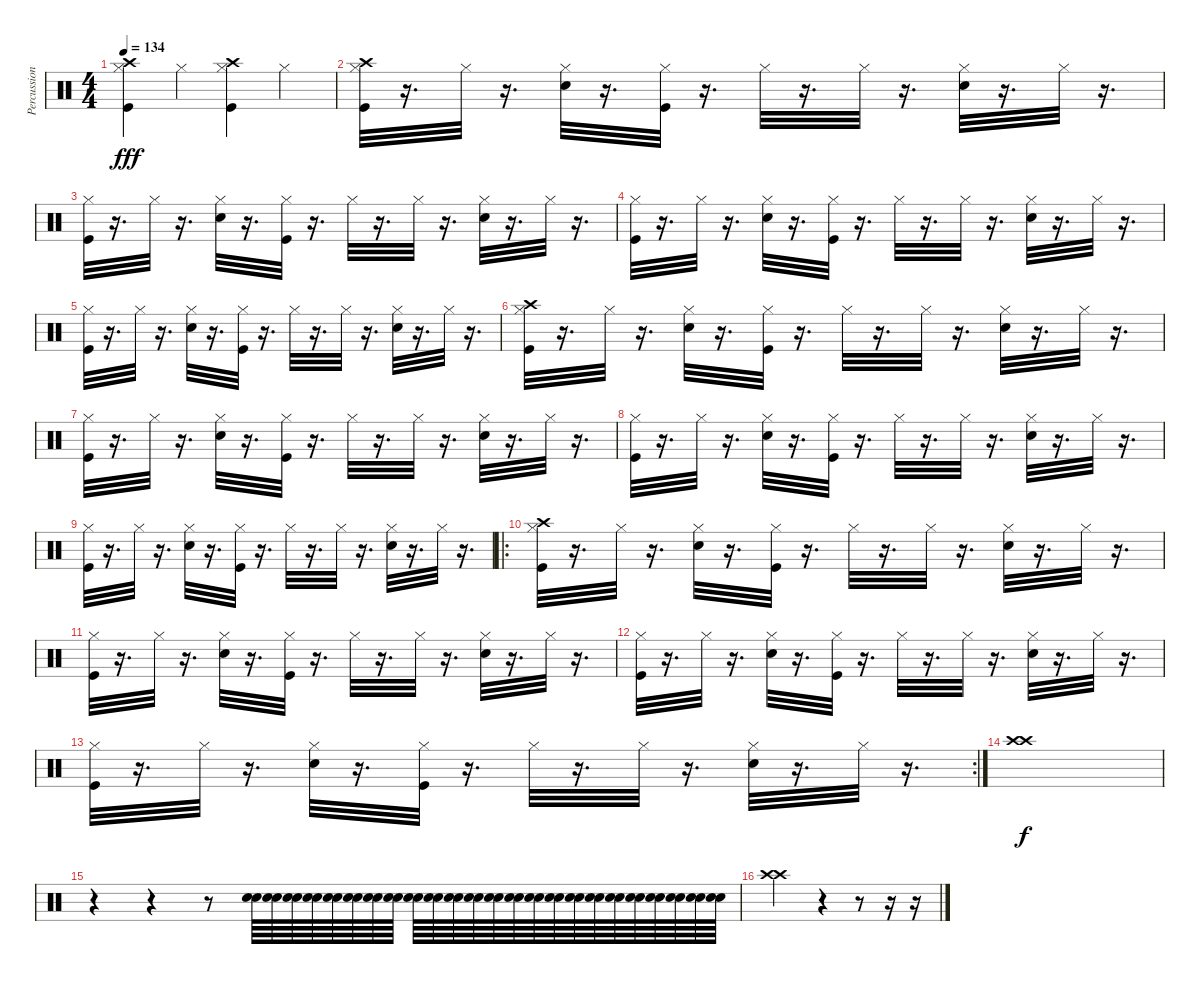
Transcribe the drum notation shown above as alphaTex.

\track ("Percussion (Rico)" "Percussion") {instrument percussion}
\staff {score}
\articulation defaults
\ts (4 4)
\tempo 134
\clef neutral
\ks c
("Kick (hit)" "Hi-Hat (closed)" "Crash high (hit)").4{dy fff} "Hi-Hat (closed)".4 ("Kick (hit)" "Hi-Hat (closed)" "Crash high (hit)").4 "Hi-Hat (closed)".4 |
("Kick (hit)" "Hi-Hat (closed)" "Crash high (hit)").32 r.16{d} "Hi-Hat (closed)".32 r.16{d} ("Electric Snare (hit)" "Hi-Hat (closed)").32 r.16{d} ("Kick (hit)" "Hi-Hat (closed)").32 r.16{d} "Hi-Hat (closed)".32 r.16{d} "Hi-Hat (closed)".32 r.16{d} ("Electric Snare (hit)" "Hi-Hat (closed)").32 r.16{d} "Hi-Hat (closed)".32 r.16{d} |
("Kick (hit)" "Hi-Hat (closed)").32 r.16{d} "Hi-Hat (closed)".32 r.16{d} ("Electric Snare (hit)" "Hi-Hat (closed)").32 r.16{d} ("Kick (hit)" "Hi-Hat (closed)").32 r.16{d} "Hi-Hat (closed)".32 r.16{d} "Hi-Hat (closed)".32 r.16{d} ("Electric Snare (hit)" "Hi-Hat (closed)").32 r.16{d} "Hi-Hat (closed)".32 r.16{d} |
("Kick (hit)" "Hi-Hat (closed)").32 r.16{d} "Hi-Hat (closed)".32 r.16{d} ("Electric Snare (hit)" "Hi-Hat (closed)").32 r.16{d} ("Kick (hit)" "Hi-Hat (closed)").32 r.16{d} "Hi-Hat (closed)".32 r.16{d} "Hi-Hat (closed)".32 r.16{d} ("Electric Snare (hit)" "Hi-Hat (closed)").32 r.16{d} "Hi-Hat (closed)".32 r.16{d} |
("Kick (hit)" "Hi-Hat (closed)").32 r.16{d} "Hi-Hat (closed)".32 r.16{d} ("Electric Snare (hit)" "Hi-Hat (closed)").32 r.16{d} ("Kick (hit)" "Hi-Hat (closed)").32 r.16{d} "Hi-Hat (closed)".32 r.16{d} "Hi-Hat (closed)".32 r.16{d} ("Electric Snare (hit)" "Hi-Hat (closed)").32 r.16{d} "Hi-Hat (closed)".32 r.16{d} |
("Kick (hit)" "Hi-Hat (closed)" "Crash high (hit)").32 r.16{d} "Hi-Hat (closed)".32 r.16{d} ("Electric Snare (hit)" "Hi-Hat (closed)").32 r.16{d} ("Kick (hit)" "Hi-Hat (closed)").32 r.16{d} "Hi-Hat (closed)".32 r.16{d} "Hi-Hat (closed)".32 r.16{d} ("Electric Snare (hit)" "Hi-Hat (closed)").32 r.16{d} "Hi-Hat (closed)".32 r.16{d} |
("Kick (hit)" "Hi-Hat (closed)").32 r.16{d} "Hi-Hat (closed)".32 r.16{d} ("Electric Snare (hit)" "Hi-Hat (closed)").32 r.16{d} ("Kick (hit)" "Hi-Hat (closed)").32 r.16{d} "Hi-Hat (closed)".32 r.16{d} "Hi-Hat (closed)".32 r.16{d} ("Electric Snare (hit)" "Hi-Hat (closed)").32 r.16{d} "Hi-Hat (closed)".32 r.16{d} |
("Kick (hit)" "Hi-Hat (closed)").32 r.16{d} "Hi-Hat (closed)".32 r.16{d} ("Electric Snare (hit)" "Hi-Hat (closed)").32 r.16{d} ("Kick (hit)" "Hi-Hat (closed)").32 r.16{d} "Hi-Hat (closed)".32 r.16{d} "Hi-Hat (closed)".32 r.16{d} ("Electric Snare (hit)" "Hi-Hat (closed)").32 r.16{d} "Hi-Hat (closed)".32 r.16{d} |
("Kick (hit)" "Hi-Hat (closed)").32 r.16{d} "Hi-Hat (closed)".32 r.16{d} ("Electric Snare (hit)" "Hi-Hat (closed)").32 r.16{d} ("Kick (hit)" "Hi-Hat (closed)").32 r.16{d} "Hi-Hat (closed)".32 r.16{d} "Hi-Hat (closed)".32 r.16{d} ("Electric Snare (hit)" "Hi-Hat (closed)").32 r.16{d} "Hi-Hat (closed)".32 r.16{d} |
\ro
("Kick (hit)" "Hi-Hat (closed)" "Crash high (hit)").32 r.16{d} "Hi-Hat (closed)".32 r.16{d} ("Electric Snare (hit)" "Hi-Hat (closed)").32 r.16{d} ("Kick (hit)" "Hi-Hat (closed)").32 r.16{d} "Hi-Hat (closed)".32 r.16{d} "Hi-Hat (closed)".32 r.16{d} ("Electric Snare (hit)" "Hi-Hat (closed)").32 r.16{d} "Hi-Hat (closed)".32 r.16{d} |
("Kick (hit)" "Hi-Hat (closed)").32 r.16{d} "Hi-Hat (closed)".32 r.16{d} ("Electric Snare (hit)" "Hi-Hat (closed)").32 r.16{d} ("Kick (hit)" "Hi-Hat (closed)").32 r.16{d} "Hi-Hat (closed)".32 r.16{d} "Hi-Hat (closed)".32 r.16{d} ("Electric Snare (hit)" "Hi-Hat (closed)").32 r.16{d} "Hi-Hat (closed)".32 r.16{d} |
("Kick (hit)" "Hi-Hat (closed)").32 r.16{d} "Hi-Hat (closed)".32 r.16{d} ("Electric Snare (hit)" "Hi-Hat (closed)").32 r.16{d} ("Kick (hit)" "Hi-Hat (closed)").32 r.16{d} "Hi-Hat (closed)".32 r.16{d} "Hi-Hat (closed)".32 r.16{d} ("Electric Snare (hit)" "Hi-Hat (closed)").32 r.16{d} "Hi-Hat (closed)".32 r.16{d} |
\rc 2
("Kick (hit)" "Hi-Hat (closed)").32 r.16{d} "Hi-Hat (closed)".32 r.16{d} ("Electric Snare (hit)" "Hi-Hat (closed)").32 r.16{d} ("Kick (hit)" "Hi-Hat (closed)").32 r.16{d} "Hi-Hat (closed)".32 r.16{d} "Hi-Hat (closed)".32 r.16{d} ("Electric Snare (hit)" "Hi-Hat (closed)").32 r.16{d} "Hi-Hat (closed)".32 r.16{d} |
("Crash high (hit)" "Crash high (hit)").1{dy f} |
r.4 r.4 r.8 ("Electric Snare (hit)" "Electric Snare (hit)").64{volume 0} ("Electric Snare (hit)" "Electric Snare (hit)").64{volume 1} ("Electric Snare (hit)" "Electric Snare (hit)").64{volume 1} ("Electric Snare (hit)" "Electric Snare (hit)").64{volume 2} ("Electric Snare (hit)" "Electric Snare (hit)").64{volume 3} ("Electric Snare (hit)" "Electric Snare (hit)").64{volume 4} ("Electric Snare (hit)" "Electric Snare (hit)").64{volume 5} ("Electric Snare (hit)" "Electric Snare (hit)").64{volume 6} ("Electric Snare (hit)" "Electric Snare (hit)").64{volume 6} ("Electric Snare (hit)" "Electric Snare (hit)").64{volume 7} ("Electric Snare (hit)" "Electric Snare (hit)").64{volume 8} ("Electric Snare (hit)" "Electric Snare (hit)").64{volume 8} ("Electric Snare (hit)" "Electric Snare (hit)").64{volume 9} ("Electric Snare (hit)" "Electric Snare (hit)").64{volume 9} ("Electric Snare (hit)" "Electric Snare (hit)").64{volume 10} ("Electric Snare (hit)" "Electric Snare (hit)").64{volume 10} ("Electric Snare (hit)" "Electric Snare (hit)").64{volume 11} ("Electric Snare (hit)" "Electric Snare (hit)").64{volume 11} ("Electric Snare (hit)" "Electric Snare (hit)").64{volume 11} ("Electric Snare (hit)" "Electric Snare (hit)").64{volume 11} ("Electric Snare (hit)" "Electric Snare (hit)").64{volume 12} ("Electric Snare (hit)" "Electric Snare (hit)").64{volume 13} ("Electric Snare (hit)" "Electric Snare (hit)").64 ("Electric Snare (hit)" "Electric Snare (hit)").64 |
("Crash high (hit)" "Crash high (hit)").2 r.4 r.8 r.16 r.16
